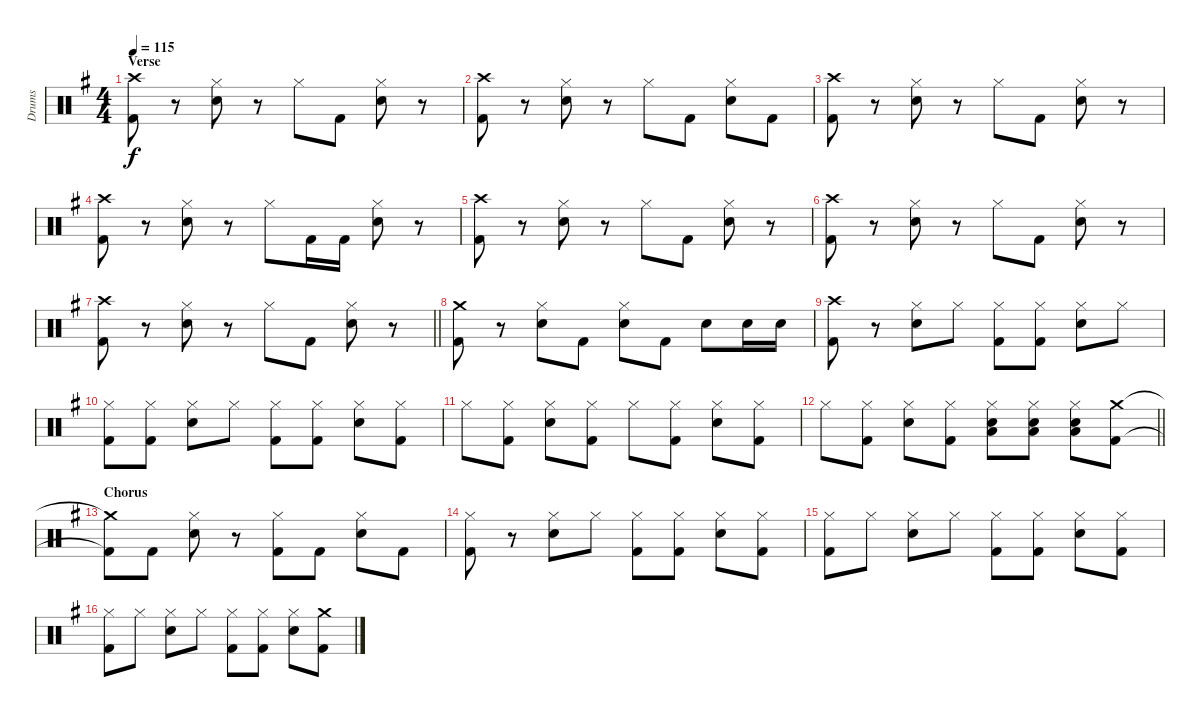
\track ("Drums" "Drums") {instrument percussion}
\staff {score}
\articulation defaults
\ts (4 4)
\section ("" "Verse")
\tempo 115
\clef neutral
\ks g
("Crash high (hit)" "Kick (hit) 2").8{dy f} r.8 ("Hi-Hat (closed)" "Electric Snare (hit)").8 r.8 "Hi-Hat (closed)".8 "Kick (hit) 2".8 ("Hi-Hat (closed)" "Electric Snare (hit)").8 r.8 |
("Crash high (hit)" "Kick (hit) 2").8 r.8 ("Hi-Hat (closed)" "Electric Snare (hit)").8 r.8 "Hi-Hat (closed)".8 "Kick (hit) 2".8 ("Hi-Hat (closed)" "Electric Snare (hit)").8 "Kick (hit) 2".8 |
("Crash high (hit)" "Kick (hit) 2").8 r.8 ("Hi-Hat (closed)" "Electric Snare (hit)").8 r.8 "Hi-Hat (closed)".8 "Kick (hit) 2".8 ("Hi-Hat (closed)" "Electric Snare (hit)").8 r.8 |
("Crash high (hit)" "Kick (hit) 2").8 r.8 ("Hi-Hat (closed)" "Electric Snare (hit)").8 r.8 "Hi-Hat (closed)".8 "Kick (hit) 2".16 "Kick (hit) 2".16 ("Hi-Hat (closed)" "Electric Snare (hit)").8 r.8 |
("Crash high (hit)" "Kick (hit) 2").8 r.8 ("Hi-Hat (closed)" "Electric Snare (hit)").8 r.8 "Hi-Hat (closed)".8 "Kick (hit) 2".8 ("Hi-Hat (closed)" "Electric Snare (hit)").8 r.8 |
("Crash high (hit)" "Kick (hit) 2").8 r.8 ("Hi-Hat (closed)" "Electric Snare (hit)").8 r.8 "Hi-Hat (closed)".8 "Kick (hit) 2".8 ("Hi-Hat (closed)" "Electric Snare (hit)").8 r.8 |
\barLineRight lightlight
("Crash high (hit)" "Kick (hit) 2").8 r.8 ("Hi-Hat (closed)" "Electric Snare (hit)").8 r.8 "Hi-Hat (closed)".8 "Kick (hit) 2".8 ("Hi-Hat (closed)" "Electric Snare (hit)").8 r.8 |
("Crash medium (hit)" "Kick (hit) 2").8 r.8 ("Hi-Hat (closed)" "Electric Snare (hit)").8 "Kick (hit) 2".8 ("Hi-Hat (closed)" "Electric Snare (hit)").8 "Kick (hit) 2".8 "Electric Snare (hit)".8 "Electric Snare (hit)".16 "Electric Snare (hit)".16 |
("Crash high (hit)" "Kick (hit) 2").8 r.8 ("Hi-Hat (closed)" "Electric Snare (hit)").8 "Hi-Hat (closed)".8 ("Hi-Hat (closed)" "Kick (hit) 2").8 ("Hi-Hat (closed)" "Kick (hit) 2").8 ("Hi-Hat (closed)" "Electric Snare (hit)").8 "Hi-Hat (closed)".8 |
("Hi-Hat (closed)" "Kick (hit) 2").8 ("Hi-Hat (closed)" "Kick (hit) 2").8 ("Hi-Hat (closed)" "Electric Snare (hit)").8 "Hi-Hat (closed)".8 ("Hi-Hat (closed)" "Kick (hit) 2").8 ("Hi-Hat (closed)" "Kick (hit) 2").8 ("Hi-Hat (closed)" "Electric Snare (hit)").8 ("Hi-Hat (closed)" "Kick (hit) 2").8 |
"Hi-Hat (closed)".8 ("Hi-Hat (closed)" "Kick (hit) 2").8 ("Hi-Hat (closed)" "Electric Snare (hit)").8 ("Hi-Hat (closed)" "Kick (hit) 2").8 "Hi-Hat (closed)".8 ("Hi-Hat (closed)" "Kick (hit) 2").8 ("Hi-Hat (closed)" "Electric Snare (hit)").8 ("Hi-Hat (closed)" "Kick (hit) 2").8 |
\barLineRight lightlight "Hi-Hat (closed)".8
("Hi-Hat (closed)" "Kick (hit) 2").8 ("Hi-Hat (closed)" "Electric Snare (hit)").8 ("Hi-Hat (closed)" "Kick (hit) 2").8 ("Hi-Hat (closed)" "Electric Snare (hit)" "Low Tom (hit)").8 ("Hi-Hat (closed)" "Electric Snare (hit)" "Low Tom (hit)").8 ("Hi-Hat (closed)" "Electric Snare (hit)" "Low Tom (hit)").8 ("Crash medium (hit)" "Kick (hit) 2").8 |
\section ("" "Chorus")
("Crash medium (hit)"{t} "Kick (hit) 2"{t}).8 "Kick (hit) 2".8 ("Hi-Hat (closed)" "Electric Snare (hit)").8 r.8 ("Hi-Hat (closed)" "Kick (hit) 2").8 "Kick (hit) 2".8 ("Hi-Hat (closed)" "Electric Snare (hit)").8 "Kick (hit) 2".8 |
("Hi-Hat (closed)" "Kick (hit) 2").8 r.8 ("Hi-Hat (closed)" "Electric Snare (hit)").8 "Hi-Hat (closed)".8 ("Hi-Hat (closed)" "Kick (hit) 2").8 ("Hi-Hat (closed)" "Kick (hit) 2").8 ("Hi-Hat (closed)" "Electric Snare (hit)").8 ("Hi-Hat (closed)" "Kick (hit) 2").8 |
("Hi-Hat (closed)" "Kick (hit) 2").8 "Hi-Hat (closed)".8 ("Hi-Hat (closed)" "Electric Snare (hit)").8 "Hi-Hat (closed)".8 ("Hi-Hat (closed)" "Kick (hit) 2").8 ("Hi-Hat (closed)" "Kick (hit) 2").8 ("Hi-Hat (closed)" "Electric Snare (hit)").8 ("Hi-Hat (closed)" "Kick (hit) 2").8 |
("Hi-Hat (closed)" "Kick (hit) 2").8 "Hi-Hat (closed)".8 ("Hi-Hat (closed)" "Electric Snare (hit)").8 "Hi-Hat (closed)".8 ("Hi-Hat (closed)" "Kick (hit) 2").8 ("Hi-Hat (closed)" "Kick (hit) 2").8 ("Hi-Hat (closed)" "Electric Snare (hit)").8 ("Crash medium (hit)" "Kick (hit) 2").8
